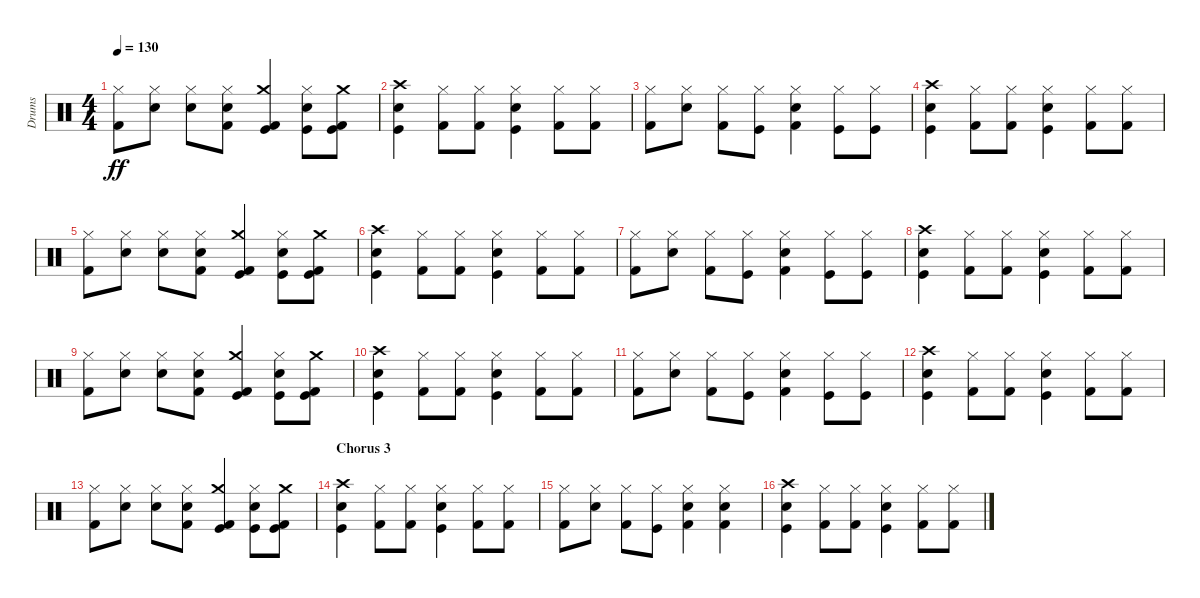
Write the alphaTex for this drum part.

\track ("Drums" "Drums") {instrument percussion}
\staff {score}
\articulation defaults
\ts (4 4)
\tempo 130
\clef neutral
\ks c
("Hi-Hat (closed)" "Kick (hit) 2").8{dy ff} ("Hi-Hat (closed)" "Snare (hit) 2").8 ("Hi-Hat (closed)" "Snare (hit) 2").8 ("Hi-Hat (closed)" "Kick (hit) 2" "Snare (hit) 2").8 ("Crash medium (hit)" "Kick (hit)" "Kick (hit) 2").4 ("Hi-Hat (closed)" "Kick (hit)" "Snare (hit) 2").8 ("Crash medium (hit)" "Kick (hit)" "Kick (hit) 2").8 |
("Crash high (hit)" "Snare (hit) 2" "Kick (hit)").4 ("Hi-Hat (closed)" "Kick (hit) 2").8 ("Hi-Hat (closed)" "Kick (hit) 2").8 ("Hi-Hat (closed)" "Snare (hit) 2" "Kick (hit)").4 ("Hi-Hat (closed)" "Kick (hit) 2").8 ("Hi-Hat (closed)" "Kick (hit) 2").8 |
("Hi-Hat (closed)" "Kick (hit) 2").8 ("Hi-Hat (closed)" "Snare (hit) 2").8 ("Hi-Hat (closed)" "Kick (hit) 2").8 ("Hi-Hat (closed)" "Kick (hit)").8 ("Hi-Hat (closed)" "Kick (hit) 2" "Snare (hit) 2").4 ("Hi-Hat (closed)" "Kick (hit)").8 ("Hi-Hat (closed)" "Kick (hit)").8 |
("Crash high (hit)" "Snare (hit) 2" "Kick (hit)").4 ("Hi-Hat (closed)" "Kick (hit) 2").8 ("Hi-Hat (closed)" "Kick (hit) 2").8 ("Hi-Hat (closed)" "Snare (hit) 2" "Kick (hit)").4 ("Hi-Hat (closed)" "Kick (hit) 2").8 ("Hi-Hat (closed)" "Kick (hit) 2").8 |
("Hi-Hat (closed)" "Kick (hit) 2").8 ("Hi-Hat (closed)" "Snare (hit) 2").8 ("Hi-Hat (closed)" "Snare (hit) 2").8 ("Hi-Hat (closed)" "Kick (hit) 2" "Snare (hit) 2").8 ("Crash medium (hit)" "Kick (hit)" "Kick (hit) 2").4 ("Hi-Hat (closed)" "Kick (hit)" "Snare (hit) 2").8 ("Crash medium (hit)" "Kick (hit)" "Kick (hit) 2").8 |
("Crash high (hit)" "Snare (hit) 2" "Kick (hit)").4 ("Hi-Hat (closed)" "Kick (hit) 2").8 ("Hi-Hat (closed)" "Kick (hit) 2").8 ("Hi-Hat (closed)" "Snare (hit) 2" "Kick (hit)").4 ("Hi-Hat (closed)" "Kick (hit) 2").8 ("Hi-Hat (closed)" "Kick (hit) 2").8 |
("Hi-Hat (closed)" "Kick (hit) 2").8 ("Hi-Hat (closed)" "Snare (hit) 2").8 ("Hi-Hat (closed)" "Kick (hit) 2").8 ("Hi-Hat (closed)" "Kick (hit)").8 ("Hi-Hat (closed)" "Kick (hit) 2" "Snare (hit) 2").4 ("Hi-Hat (closed)" "Kick (hit)").8 ("Hi-Hat (closed)" "Kick (hit)").8 |
("Crash high (hit)" "Snare (hit) 2" "Kick (hit)").4 ("Hi-Hat (closed)" "Kick (hit) 2").8 ("Hi-Hat (closed)" "Kick (hit) 2").8 ("Hi-Hat (closed)" "Snare (hit) 2" "Kick (hit)").4 ("Hi-Hat (closed)" "Kick (hit) 2").8 ("Hi-Hat (closed)" "Kick (hit) 2").8 |
("Hi-Hat (closed)" "Kick (hit) 2").8 ("Hi-Hat (closed)" "Snare (hit) 2").8 ("Hi-Hat (closed)" "Snare (hit) 2").8 ("Hi-Hat (closed)" "Kick (hit) 2" "Snare (hit) 2").8 ("Crash medium (hit)" "Kick (hit)" "Kick (hit) 2").4 ("Hi-Hat (closed)" "Kick (hit)" "Snare (hit) 2").8 ("Crash medium (hit)" "Kick (hit)" "Kick (hit) 2").8 |
("Crash high (hit)" "Snare (hit) 2" "Kick (hit)").4 ("Hi-Hat (closed)" "Kick (hit) 2").8 ("Hi-Hat (closed)" "Kick (hit) 2").8 ("Hi-Hat (closed)" "Snare (hit) 2" "Kick (hit)").4 ("Hi-Hat (closed)" "Kick (hit) 2").8 ("Hi-Hat (closed)" "Kick (hit) 2").8 |
("Hi-Hat (closed)" "Kick (hit) 2").8 ("Hi-Hat (closed)" "Snare (hit) 2").8 ("Hi-Hat (closed)" "Kick (hit) 2").8 ("Hi-Hat (closed)" "Kick (hit)").8 ("Hi-Hat (closed)" "Kick (hit) 2" "Snare (hit) 2").4 ("Hi-Hat (closed)" "Kick (hit)").8 ("Hi-Hat (closed)" "Kick (hit)").8 |
("Crash high (hit)" "Snare (hit) 2" "Kick (hit)").4 ("Hi-Hat (closed)" "Kick (hit) 2").8 ("Hi-Hat (closed)" "Kick (hit) 2").8 ("Hi-Hat (closed)" "Snare (hit) 2" "Kick (hit)").4 ("Hi-Hat (closed)" "Kick (hit) 2").8 ("Hi-Hat (closed)" "Kick (hit) 2").8 |
("Hi-Hat (closed)" "Kick (hit) 2").8 ("Hi-Hat (closed)" "Snare (hit) 2").8 ("Hi-Hat (closed)" "Snare (hit) 2").8 ("Hi-Hat (closed)" "Kick (hit) 2" "Snare (hit) 2").8 ("Crash medium (hit)" "Kick (hit)" "Kick (hit) 2").4 ("Hi-Hat (closed)" "Kick (hit)" "Snare (hit) 2").8 ("Crash medium (hit)" "Kick (hit)" "Kick (hit) 2").8 |
\section ("" "Chorus 3")
("Crash high (hit)" "Snare (hit) 2" "Kick (hit)").4 ("Hi-Hat (closed)" "Kick (hit) 2").8 ("Hi-Hat (closed)" "Kick (hit) 2").8 ("Hi-Hat (closed)" "Snare (hit) 2" "Kick (hit)").4 ("Hi-Hat (closed)" "Kick (hit) 2").8 ("Hi-Hat (closed)" "Kick (hit) 2").8 |
("Hi-Hat (closed)" "Kick (hit) 2").8 ("Hi-Hat (closed)" "Snare (hit) 2").8 ("Hi-Hat (closed)" "Kick (hit) 2").8 ("Hi-Hat (closed)" "Kick (hit)").8 ("Hi-Hat (closed)" "Kick (hit) 2" "Snare (hit) 2").4 ("Hi-Hat (closed)" "Kick (hit) 2" "Snare (hit) 2").4 |
("Crash high (hit)" "Snare (hit) 2" "Kick (hit)").4 ("Hi-Hat (closed)" "Kick (hit) 2").8 ("Hi-Hat (closed)" "Kick (hit) 2").8 ("Hi-Hat (closed)" "Snare (hit) 2" "Kick (hit)").4 ("Hi-Hat (closed)" "Kick (hit) 2").8 ("Hi-Hat (closed)" "Kick (hit) 2").8
